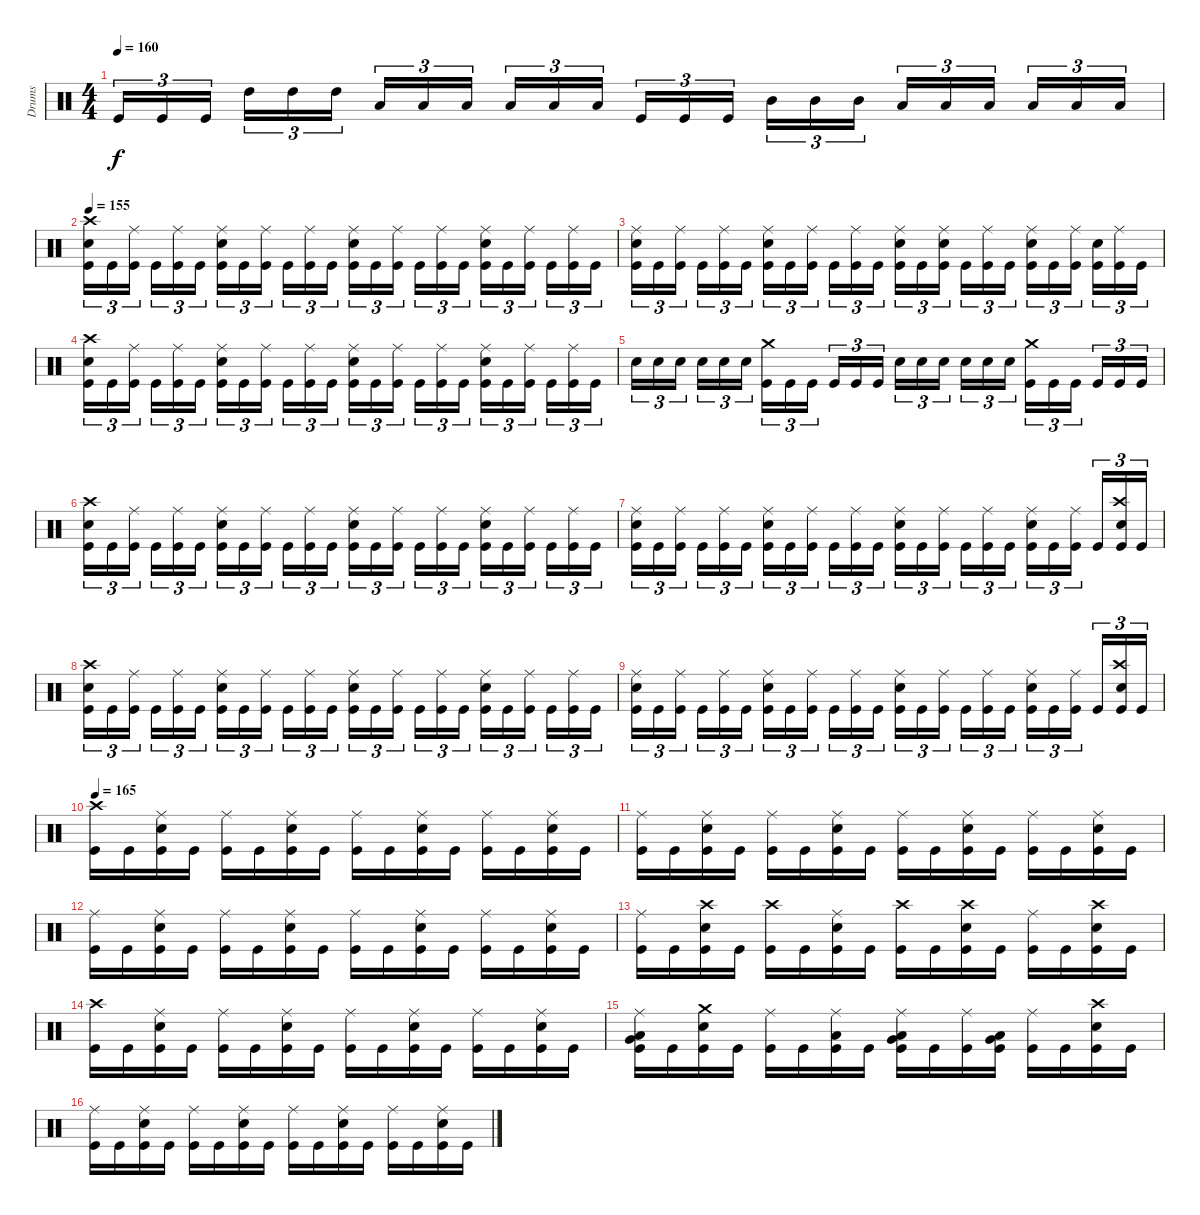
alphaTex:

\track ("Drums" "Drums") {instrument percussion}
\staff {score}
\articulation defaults
\ts (4 4)
\tempo 160
\clef neutral
\ks c "Kick (hit)".16{tu (3 2) dy f} "Kick (hit)".16{tu (3 2)} "Kick (hit)".16{tu (3 2)} "High Tom (hit)".16{tu (3 2)} "High Tom (hit)".16{tu (3 2)} "High Tom (hit)".16{tu (3 2)} "Low Tom (hit)".16{tu (3 2)} "Low Tom (hit)".16{tu (3 2)} "Low Tom (hit)".16{tu (3 2)} "Low Tom (hit)".16{tu (3 2)} "Low Tom (hit)".16{tu (3 2)} "Low Tom (hit)".16{tu (3 2)} "Kick (hit)".16{tu (3 2)} "Kick (hit)".16{tu (3 2)} "Kick (hit)".16{tu (3 2)} "Mid Tom (hit)".16{tu (3 2)} "Mid Tom (hit)".16{tu (3 2)} "Mid Tom (hit)".16{tu (3 2)} "Low Tom (hit)".16{tu (3 2)} "Low Tom (hit)".16{tu (3 2)} "Low Tom (hit)".16{tu (3 2)} "Low Tom (hit)".16{tu (3 2)} "Low Tom (hit)".16{tu (3 2)} "Low Tom (hit)".16{tu (3 2)}
|
\tempo 155
("Crash high (hit)" "Electric Snare (hit)" "Kick (hit)").16{tu (3 2)} "Kick (hit)".16{tu (3 2)} ("Ride (middle)" "Kick (hit)").16{tu (3 2)} "Kick (hit)".16{tu (3 2)} ("Ride (middle)" "Kick (hit)").16{tu (3 2)} "Kick (hit)".16{tu (3 2)} ("Ride (middle)" "Electric Snare (hit)" "Kick (hit)").16{tu (3 2)} "Kick (hit)".16{tu (3 2)} ("Ride (middle)" "Kick (hit)").16{tu (3 2)} "Kick (hit)".16{tu (3 2)} ("Ride (middle)" "Kick (hit)").16{tu (3 2)} "Kick (hit)".16{tu (3 2)} ("Ride (middle)" "Electric Snare (hit)" "Kick (hit)").16{tu (3 2)} "Kick (hit)".16{tu (3 2)} ("Ride (middle)" "Kick (hit)").16{tu (3 2)} "Kick (hit)".16{tu (3 2)} ("Ride (middle)" "Kick (hit)").16{tu (3 2)} "Kick (hit)".16{tu (3 2)} ("Ride (middle)" "Electric Snare (hit)" "Kick (hit)").16{tu (3 2)} "Kick (hit)".16{tu (3 2)} ("Ride (middle)" "Kick (hit)").16{tu (3 2)} "Kick (hit)".16{tu (3 2)} ("Ride (middle)" "Kick (hit)").16{tu (3 2)} "Kick (hit)".16{tu (3 2)} |
("Ride (middle)" "Electric Snare (hit)" "Kick (hit)").16{tu (3 2)} "Kick (hit)".16{tu (3 2)} ("Ride (middle)" "Kick (hit)").16{tu (3 2)} "Kick (hit)".16{tu (3 2)} ("Ride (middle)" "Kick (hit)").16{tu (3 2)} "Kick (hit)".16{tu (3 2)} ("Ride (middle)" "Electric Snare (hit)" "Kick (hit)").16{tu (3 2)} "Kick (hit)".16{tu (3 2)} ("Ride (middle)" "Kick (hit)").16{tu (3 2)} "Kick (hit)".16{tu (3 2)} ("Ride (middle)" "Kick (hit)").16{tu (3 2)} "Kick (hit)".16{tu (3 2)} ("Ride (middle)" "Electric Snare (hit)" "Kick (hit)").16{tu (3 2)} "Kick (hit)".16{tu (3 2)} ("Ride (middle)" "Electric Snare (hit)" "Kick (hit)").16{tu (3 2)} "Kick (hit)".16{tu (3 2)} ("Ride (middle)" "Kick (hit)").16{tu (3 2)} "Kick (hit)".16{tu (3 2)} ("Ride (middle)" "Electric Snare (hit)" "Kick (hit)").16{tu (3 2)} "Kick (hit)".16{tu (3 2)} ("Ride (middle)" "Kick (hit)").16{tu (3 2)} ("Electric Snare (hit)" "Kick (hit)").16{tu (3 2)} ("Ride (middle)" "Kick (hit)").16{tu (3 2)} "Kick (hit)".16{tu (3 2)} |
("Crash high (hit)" "Electric Snare (hit)" "Kick (hit)").16{tu (3 2)} "Kick (hit)".16{tu (3 2)} ("Ride (middle)" "Kick (hit)").16{tu (3 2)} "Kick (hit)".16{tu (3 2)} ("Ride (middle)" "Kick (hit)").16{tu (3 2)} "Kick (hit)".16{tu (3 2)} ("Ride (middle)" "Electric Snare (hit)" "Kick (hit)").16{tu (3 2)} "Kick (hit)".16{tu (3 2)} ("Ride (middle)" "Kick (hit)").16{tu (3 2)} "Kick (hit)".16{tu (3 2)} ("Ride (middle)" "Kick (hit)").16{tu (3 2)} "Kick (hit)".16{tu (3 2)} ("Ride (middle)" "Electric Snare (hit)" "Kick (hit)").16{tu (3 2)} "Kick (hit)".16{tu (3 2)} ("Ride (middle)" "Kick (hit)").16{tu (3 2)} "Kick (hit)".16{tu (3 2)} ("Ride (middle)" "Kick (hit)").16{tu (3 2)} "Kick (hit)".16{tu (3 2)} ("Ride (middle)" "Electric Snare (hit)" "Kick (hit)").16{tu (3 2)} "Kick (hit)".16{tu (3 2)} ("Ride (middle)" "Kick (hit)").16{tu (3 2)} "Kick (hit)".16{tu (3 2)} ("Ride (middle)" "Kick (hit)").16{tu (3 2)} "Kick (hit)".16{tu (3 2)} |
"Electric Snare (hit)".16{tu (3 2)} "Electric Snare (hit)".16{tu (3 2)} "Electric Snare (hit)".16{tu (3 2)} "Electric Snare (hit)".16{tu (3 2)} "Electric Snare (hit)".16{tu (3 2)} "Electric Snare (hit)".16{tu (3 2)} ("Crash medium (hit)" "Kick (hit)").16{tu (3 2)} "Kick (hit)".16{tu (3 2)} "Kick (hit)".16{tu (3 2)} "Kick (hit)".16{tu (3 2)} "Kick (hit)".16{tu (3 2)} "Kick (hit)".16{tu (3 2)} "Electric Snare (hit)".16{tu (3 2)} "Electric Snare (hit)".16{tu (3 2)} "Electric Snare (hit)".16{tu (3 2)} "Electric Snare (hit)".16{tu (3 2)} "Electric Snare (hit)".16{tu (3 2)} "Electric Snare (hit)".16{tu (3 2)} ("Crash medium (hit)" "Kick (hit)").16{tu (3 2)} "Kick (hit)".16{tu (3 2)} "Kick (hit)".16{tu (3 2)} "Kick (hit)".16{tu (3 2)} "Kick (hit)".16{tu (3 2)} "Kick (hit)".16{tu (3 2)} |
("Crash high (hit)" "Electric Snare (hit)" "Kick (hit)").16{tu (3 2)} "Kick (hit)".16{tu (3 2)} ("Ride (middle)" "Kick (hit)").16{tu (3 2)} "Kick (hit)".16{tu (3 2)} ("Ride (middle)" "Kick (hit)").16{tu (3 2)} "Kick (hit)".16{tu (3 2)} ("Ride (middle)" "Electric Snare (hit)" "Kick (hit)").16{tu (3 2)} "Kick (hit)".16{tu (3 2)} ("Ride (middle)" "Kick (hit)").16{tu (3 2)} "Kick (hit)".16{tu (3 2)} ("Ride (middle)" "Kick (hit)").16{tu (3 2)} "Kick (hit)".16{tu (3 2)} ("Ride (middle)" "Electric Snare (hit)" "Kick (hit)").16{tu (3 2)} "Kick (hit)".16{tu (3 2)} ("Ride (middle)" "Kick (hit)").16{tu (3 2)} "Kick (hit)".16{tu (3 2)} ("Ride (middle)" "Kick (hit)").16{tu (3 2)} "Kick (hit)".16{tu (3 2)} ("Ride (middle)" "Electric Snare (hit)" "Kick (hit)").16{tu (3 2)} "Kick (hit)".16{tu (3 2)} ("Ride (middle)" "Kick (hit)").16{tu (3 2)} "Kick (hit)".16{tu (3 2)} ("Ride (middle)" "Kick (hit)").16{tu (3 2)} "Kick (hit)".16{tu (3 2)} |
("Ride (middle)" "Electric Snare (hit)" "Kick (hit)").16{tu (3 2)} "Kick (hit)".16{tu (3 2)} ("Ride (middle)" "Kick (hit)").16{tu (3 2)} "Kick (hit)".16{tu (3 2)} ("Ride (middle)" "Kick (hit)").16{tu (3 2)} "Kick (hit)".16{tu (3 2)} ("Ride (middle)" "Electric Snare (hit)" "Kick (hit)").16{tu (3 2)} "Kick (hit)".16{tu (3 2)} ("Ride (middle)" "Kick (hit)").16{tu (3 2)} "Kick (hit)".16{tu (3 2)} ("Ride (middle)" "Kick (hit)").16{tu (3 2)} "Kick (hit)".16{tu (3 2)} ("Ride (middle)" "Electric Snare (hit)" "Kick (hit)").16{tu (3 2)} "Kick (hit)".16{tu (3 2)} ("Ride (middle)" "Kick (hit)").16{tu (3 2)} "Kick (hit)".16{tu (3 2)} ("Ride (middle)" "Kick (hit)").16{tu (3 2)} "Kick (hit)".16{tu (3 2)} ("Ride (middle)" "Electric Snare (hit)" "Kick (hit)").16{tu (3 2)} "Kick (hit)".16{tu (3 2)} ("Ride (middle)" "Kick (hit)").16{tu (3 2)} "Kick (hit)".16{tu (3 2)} ("Crash high (hit)" "Electric Snare (hit)" "Kick (hit)").16{tu (3 2)} "Kick (hit)".16{tu (3 2)} |
("Crash high (hit)" "Electric Snare (hit)" "Kick (hit)").16{tu (3 2)} "Kick (hit)".16{tu (3 2)} ("Ride (middle)" "Kick (hit)").16{tu (3 2)} "Kick (hit)".16{tu (3 2)} ("Ride (middle)" "Kick (hit)").16{tu (3 2)} "Kick (hit)".16{tu (3 2)} ("Ride (middle)" "Electric Snare (hit)" "Kick (hit)").16{tu (3 2)} "Kick (hit)".16{tu (3 2)} ("Ride (middle)" "Kick (hit)").16{tu (3 2)} "Kick (hit)".16{tu (3 2)} ("Ride (middle)" "Kick (hit)").16{tu (3 2)} "Kick (hit)".16{tu (3 2)} ("Ride (middle)" "Electric Snare (hit)" "Kick (hit)").16{tu (3 2)} "Kick (hit)".16{tu (3 2)} ("Ride (middle)" "Kick (hit)").16{tu (3 2)} "Kick (hit)".16{tu (3 2)} ("Ride (middle)" "Kick (hit)").16{tu (3 2)} "Kick (hit)".16{tu (3 2)} ("Ride (middle)" "Electric Snare (hit)" "Kick (hit)").16{tu (3 2)} "Kick (hit)".16{tu (3 2)} ("Ride (middle)" "Kick (hit)").16{tu (3 2)} "Kick (hit)".16{tu (3 2)} ("Ride (middle)" "Kick (hit)").16{tu (3 2)} "Kick (hit)".16{tu (3 2)} |
("Ride (middle)" "Electric Snare (hit)" "Kick (hit)").16{tu (3 2)} "Kick (hit)".16{tu (3 2)} ("Ride (middle)" "Kick (hit)").16{tu (3 2)} "Kick (hit)".16{tu (3 2)} ("Ride (middle)" "Kick (hit)").16{tu (3 2)} "Kick (hit)".16{tu (3 2)} ("Ride (middle)" "Electric Snare (hit)" "Kick (hit)").16{tu (3 2)} "Kick (hit)".16{tu (3 2)} ("Ride (middle)" "Kick (hit)").16{tu (3 2)} "Kick (hit)".16{tu (3 2)} ("Ride (middle)" "Kick (hit)").16{tu (3 2)} "Kick (hit)".16{tu (3 2)} ("Ride (middle)" "Electric Snare (hit)" "Kick (hit)").16{tu (3 2)} "Kick (hit)".16{tu (3 2)} ("Ride (middle)" "Kick (hit)").16{tu (3 2)} "Kick (hit)".16{tu (3 2)} ("Ride (middle)" "Kick (hit)").16{tu (3 2)} "Kick (hit)".16{tu (3 2)} ("Ride (middle)" "Electric Snare (hit)" "Kick (hit)").16{tu (3 2)} "Kick (hit)".16{tu (3 2)} ("Ride (middle)" "Kick (hit)").16{tu (3 2)} "Kick (hit)".16{tu (3 2)} ("Crash high (hit)" "Electric Snare (hit)" "Kick (hit)").16{tu (3 2)} "Kick (hit)".16{tu (3 2)} |
\tempo 165
("Crash high (hit)" "Kick (hit)").16 "Kick (hit)".16 ("Ride (middle)" "Electric Snare (hit)" "Kick (hit)").16 "Kick (hit)".16 ("Ride (middle)" "Kick (hit)").16 "Kick (hit)".16 ("Ride (middle)" "Electric Snare (hit)" "Kick (hit)").16 "Kick (hit)".16 ("Ride (middle)" "Kick (hit)").16 "Kick (hit)".16 ("Ride (middle)" "Electric Snare (hit)" "Kick (hit)").16 "Kick (hit)".16 ("Ride (middle)" "Kick (hit)").16 "Kick (hit)".16 ("Ride (middle)" "Electric Snare (hit)" "Kick (hit)").16 "Kick (hit)".16 |
("Ride (middle)" "Kick (hit)").16 "Kick (hit)".16 ("Ride (middle)" "Electric Snare (hit)" "Kick (hit)").16 "Kick (hit)".16 ("Ride (middle)" "Kick (hit)").16 "Kick (hit)".16 ("Ride (middle)" "Electric Snare (hit)" "Kick (hit)").16 "Kick (hit)".16 ("Ride (middle)" "Kick (hit)").16 "Kick (hit)".16 ("Ride (middle)" "Electric Snare (hit)" "Kick (hit)").16 "Kick (hit)".16 ("Ride (middle)" "Kick (hit)").16 "Kick (hit)".16 ("Ride (middle)" "Electric Snare (hit)" "Kick (hit)").16 "Kick (hit)".16 |
("Ride (middle)" "Kick (hit)").16 "Kick (hit)".16 ("Ride (middle)" "Electric Snare (hit)" "Kick (hit)").16 "Kick (hit)".16 ("Ride (middle)" "Kick (hit)").16 "Kick (hit)".16 ("Ride (middle)" "Electric Snare (hit)" "Kick (hit)").16 "Kick (hit)".16 ("Ride (middle)" "Kick (hit)").16 "Kick (hit)".16 ("Ride (middle)" "Electric Snare (hit)" "Kick (hit)").16 "Kick (hit)".16 ("Ride (middle)" "Kick (hit)").16 "Kick (hit)".16 ("Ride (middle)" "Electric Snare (hit)" "Kick (hit)").16 "Kick (hit)".16 |
("Ride (middle)" "Kick (hit)").16 "Kick (hit)".16 ("Crash high (hit)" "Electric Snare (hit)" "Kick (hit)").16 "Kick (hit)".16 ("Crash high (hit)" "Kick (hit)").16 "Kick (hit)".16 ("Ride (middle)" "Electric Snare (hit)" "Kick (hit)").16 "Kick (hit)".16 ("Crash high (hit)" "Kick (hit)").16 "Kick (hit)".16 ("Crash high (hit)" "Electric Snare (hit)" "Kick (hit)").16 "Kick (hit)".16 ("Ride (middle)" "Kick (hit)").16 "Kick (hit)".16 ("Crash high (hit)" "Electric Snare (hit)" "Kick (hit)").16 "Kick (hit)".16 |
("Crash high (hit)" "Kick (hit)").16 "Kick (hit)".16 ("Ride (middle)" "Electric Snare (hit)" "Kick (hit)").16 "Kick (hit)".16 ("Ride (middle)" "Kick (hit)").16 "Kick (hit)".16 ("Ride (middle)" "Electric Snare (hit)" "Kick (hit)").16 "Kick (hit)".16 ("Ride (middle)" "Kick (hit)").16 "Kick (hit)".16 ("Ride (middle)" "Electric Snare (hit)" "Kick (hit)").16 "Kick (hit)".16 ("Ride (middle)" "Kick (hit)").16 "Kick (hit)".16 ("Ride (middle)" "Electric Snare (hit)" "Kick (hit)").16 "Kick (hit)".16 |
("Ride (middle)" "Low Tom (hit)" "Very Low Tom (hit)" "Kick (hit)").16 "Kick (hit)".16 ("Crash medium (hit)" "Electric Snare (hit)" "Kick (hit)").16 "Kick (hit)".16 ("Ride (middle)" "Kick (hit)").16 "Kick (hit)".16 ("Ride (middle)" "Low Tom (hit)" "Kick (hit)").16 "Kick (hit)".16 ("Ride (middle)" "Low Tom (hit)" "Very Low Tom (hit)" "Kick (hit)").16 "Kick (hit)".16 ("Ride (middle)" "Kick (hit)").16 ("Low Tom (hit)" "Very Low Tom (hit)" "Kick (hit)").16 ("Ride (middle)" "Kick (hit)").16 "Kick (hit)".16 ("Crash high (hit)" "Electric Snare (hit)" "Kick (hit)").16 "Kick (hit)".16 |
("Ride (middle)" "Kick (hit)").16 "Kick (hit)".16 ("Ride (middle)" "Electric Snare (hit)" "Kick (hit)").16 "Kick (hit)".16 ("Ride (middle)" "Kick (hit)").16 "Kick (hit)".16 ("Ride (middle)" "Electric Snare (hit)" "Kick (hit)").16 "Kick (hit)".16 ("Ride (middle)" "Kick (hit)").16 "Kick (hit)".16 ("Ride (middle)" "Electric Snare (hit)" "Kick (hit)").16 "Kick (hit)".16 ("Ride (middle)" "Kick (hit)").16 "Kick (hit)".16 ("Ride (middle)" "Electric Snare (hit)" "Kick (hit)").16 "Kick (hit)".16
